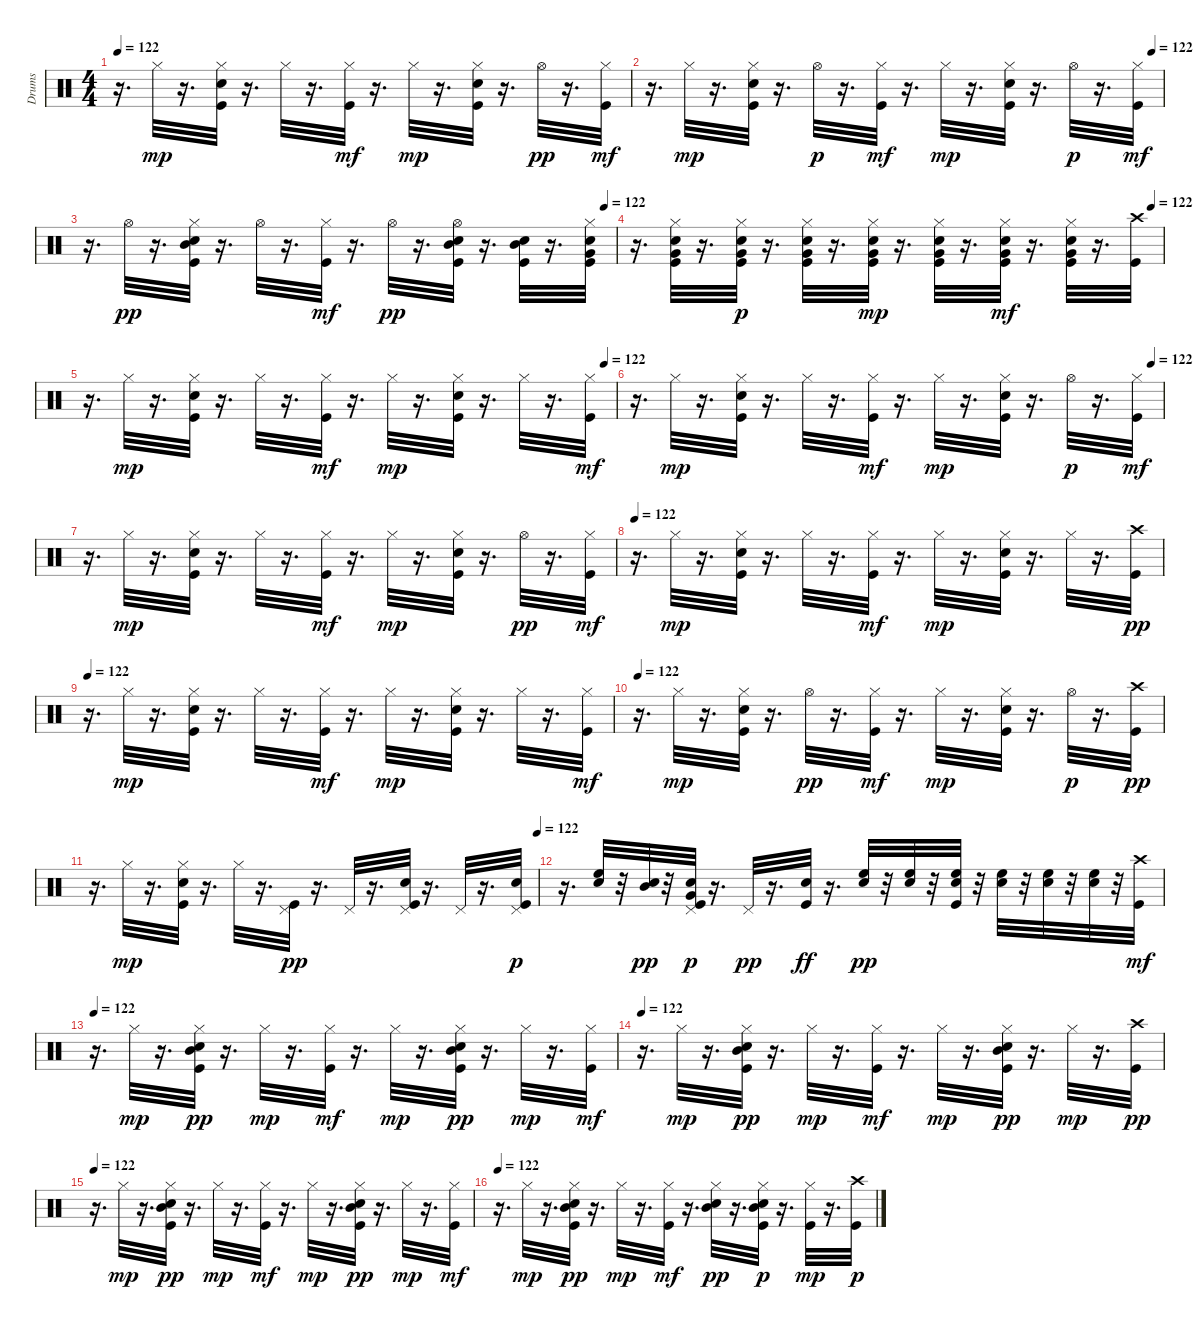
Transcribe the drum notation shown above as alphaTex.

\track ("Drums" "Drums") {instrument percussion}
\staff {score}
\articulation defaults
\ts (4 4)
\tempo 122
\clef neutral
\ks c
r.16{d dy pp} "Hi-Hat (closed)".32{dy mp} r.16{d} ("Kick (hit)" "Snare (hit) 2" "Hi-Hat (closed)").32 r.16{d} "Hi-Hat (closed)".32 r.16{d} ("Kick (hit)" "Hi-Hat (closed)").32{dy mf} r.16{d} "Hi-Hat (closed)".32{dy mp} r.16{d} ("Kick (hit)" "Snare (hit) 2" "Hi-Hat (closed)").32 r.16{d} "Hi-Hat (open)".32{dy pp} r.16{d} ("Kick (hit)" "Hi-Hat (closed)").32{dy mf} |
\tempo (122 0.9791666666666666)
r.16{d} "Hi-Hat (closed)".32{dy mp} r.16{d} ("Kick (hit)" "Snare (hit) 2" "Hi-Hat (closed)").32 r.16{d} "Hi-Hat (open)".32{dy p} r.16{d} ("Kick (hit)" "Hi-Hat (closed)").32{dy mf} r.16{d} "Hi-Hat (closed)".32{dy mp} r.16{d} ("Kick (hit)" "Snare (hit) 2" "Hi-Hat (closed)").32 r.16{d} "Hi-Hat (open)".32{dy p} r.16{d} ("Kick (hit)" "Hi-Hat (closed)").32{dy mf} |
\tempo (122 0.9791666666666666)
r.16{d} "Hi-Hat (open)".32{dy pp} r.16{d} ("Kick (hit)" "Hi-Hat (closed)" "Snare (hit) 2" "Mid Tom (hit)").32 r.16{d} "Hi-Hat (open)".32 r.16{d} ("Kick (hit)" "Hi-Hat (closed)").32{dy mf} r.16{d} "Hi-Hat (open)".32{dy pp} r.16{d} ("Kick (hit)" "Hi-Hat (open)" "Snare (hit) 2" "Mid Tom (hit)").32 r.16{d} ("Kick (hit)" "Snare (hit) 2" "Mid Tom (hit)").32 r.16{d} ("Kick (hit)" "Hi-Hat (closed)" "Snare (hit) 2" "Very Low Tom (hit)").32 |
\tempo (122 0.9791666666666666)
r.16{d} ("Kick (hit)" "Hi-Hat (closed)" "Snare (hit) 2" "Very Low Tom (hit)").32 r.16{d} ("Kick (hit)" "Hi-Hat (closed)" "Snare (hit) 2" "Very Low Tom (hit)").32{dy p} r.16{d} ("Kick (hit)" "Hi-Hat (closed)" "Snare (hit) 2" "Very Low Tom (hit)").32 r.16{d} ("Kick (hit)" "Hi-Hat (closed)" "Snare (hit) 2" "Very Low Tom (hit)").32{dy mp} r.16{d} ("Kick (hit)" "Hi-Hat (closed)" "Snare (hit) 2" "Very Low Tom (hit)").32 r.16{d} ("Kick (hit)" "Hi-Hat (closed)" "Snare (hit) 2" "Very Low Tom (hit)").32{dy mf} r.16{d} ("Kick (hit)" "Hi-Hat (closed)" "Snare (hit) 2" "Very Low Tom (hit)").32 r.16{d} ("Kick (hit)" "Crash high (hit)").32 |
\tempo (122 0.9791666666666666)
r.16{d} "Hi-Hat (closed)".32{dy mp} r.16{d} ("Kick (hit)" "Snare (hit) 2" "Hi-Hat (closed)").32 r.16{d} "Hi-Hat (closed)".32 r.16{d} ("Kick (hit)" "Hi-Hat (closed)").32{dy mf} r.16{d} "Hi-Hat (closed)".32{dy mp} r.16{d} ("Kick (hit)" "Snare (hit) 2" "Hi-Hat (closed)").32 r.16{d} "Hi-Hat (closed)".32 r.16{d} ("Kick (hit)" "Hi-Hat (closed)").32{dy mf} |
\tempo (122 0.9791666666666666)
r.16{d} "Hi-Hat (closed)".32{dy mp} r.16{d} ("Kick (hit)" "Snare (hit) 2" "Hi-Hat (closed)").32 r.16{d} "Hi-Hat (closed)".32 r.16{d} ("Kick (hit)" "Hi-Hat (closed)").32{dy mf} r.16{d} "Hi-Hat (closed)".32{dy mp} r.16{d} ("Kick (hit)" "Snare (hit) 2" "Hi-Hat (closed)").32 r.16{d} "Hi-Hat (open)".32{dy p} r.16{d} ("Kick (hit)" "Hi-Hat (closed)").32{dy mf} |
r.16{d} "Hi-Hat (closed)".32{dy mp} r.16{d} ("Kick (hit)" "Snare (hit) 2" "Hi-Hat (closed)").32 r.16{d} "Hi-Hat (closed)".32 r.16{d} ("Kick (hit)" "Hi-Hat (closed)").32{dy mf} r.16{d} "Hi-Hat (closed)".32{dy mp} r.16{d} ("Kick (hit)" "Snare (hit) 2" "Hi-Hat (closed)").32 r.16{d} "Hi-Hat (open)".32{dy pp} r.16{d} ("Kick (hit)" "Hi-Hat (closed)").32{dy mf} |
\tempo 122
r.16{d} "Hi-Hat (closed)".32{dy mp} r.16{d} ("Kick (hit)" "Snare (hit) 2" "Hi-Hat (closed)").32 r.16{d} "Hi-Hat (closed)".32 r.16{d} ("Kick (hit)" "Hi-Hat (closed)").32{dy mf} r.16{d} "Hi-Hat (closed)".32{dy mp} r.16{d} ("Kick (hit)" "Snare (hit) 2" "Hi-Hat (closed)").32 r.16{d} "Hi-Hat (closed)".32 r.16{d} ("Kick (hit)" "Crash high (hit)").32{dy pp} |
\tempo 122
r.16{d} "Hi-Hat (closed)".32{dy mp} r.16{d} ("Kick (hit)" "Snare (hit) 2" "Hi-Hat (closed)").32 r.16{d} "Hi-Hat (closed)".32 r.16{d} ("Kick (hit)" "Hi-Hat (closed)").32{dy mf} r.16{d} "Hi-Hat (closed)".32{dy mp} r.16{d} ("Kick (hit)" "Snare (hit) 2" "Hi-Hat (closed)").32 r.16{d} "Hi-Hat (closed)".32 r.16{d} ("Kick (hit)" "Hi-Hat (closed)").32{dy mf} |
\tempo 122
r.16{d} "Hi-Hat (closed)".32{dy mp} r.16{d} ("Kick (hit)" "Snare (hit) 2" "Hi-Hat (closed)").32 r.16{d} "Hi-Hat (open)".32{dy pp} r.16{d} ("Kick (hit)" "Hi-Hat (closed)").32{dy mf} r.16{d} "Hi-Hat (closed)".32{dy mp} r.16{d} ("Kick (hit)" "Snare (hit) 2" "Hi-Hat (closed)").32 r.16{d} "Hi-Hat (open)".32{dy p} r.16{d} ("Kick (hit)" "Crash high (hit)").32{dy pp} |
\tempo (122 1)
r.16{d} "Hi-Hat (closed)".32{dy mp} r.16{d} ("Kick (hit)" "Snare (hit) 2" "Hi-Hat (closed)").32 r.16{d} "Hi-Hat (closed)".32 r.16{d} ("Kick (hit)" "Pedal Hi-Hat (hit)").32{dy pp} r.16{d} "Pedal Hi-Hat (hit)".32 r.16{d} ("Kick (hit)" "Snare (hit) 2" "Pedal Hi-Hat (hit)").32 r.16{d} "Pedal Hi-Hat (hit)".32 r.16{d} ("Kick (hit)" "Snare (hit) 2" "Pedal Hi-Hat (hit)").32{dy p} |
r.16{d} ("Snare (hit) 2" "High Floor Tom (hit)").32 r.32 ("Snare (hit) 2" "Mid Tom (hit)").32{dy pp} r.32 ("Kick (hit)" "Very Low Tom (hit)" "Snare (hit) 2" "Pedal Hi-Hat (hit)").32{dy p} r.16{d} "Pedal Hi-Hat (hit)".32{dy pp} r.16{d} ("Kick (hit)" "Snare (hit) 2").32{dy ff} r.16{d} ("Snare (hit) 2" "High Floor Tom (hit)").32{dy pp} r.32 ("Snare (hit) 2" "High Floor Tom (hit)").32 r.32 ("Kick (hit)" "Snare (hit) 2" "High Floor Tom (hit)").32 r.32 ("Snare (hit) 2" "High Floor Tom (hit)").32 r.32 ("Snare (hit) 2" "High Floor Tom (hit)").32 r.32 ("Snare (hit) 2" "High Floor Tom (hit)").32 r.32 ("Kick (hit)" "Crash high (hit)").32{dy mf} |
\tempo 122
r.16{d} "Hi-Hat (closed)".32{dy mp} r.16{d} ("Kick (hit)" "Hi-Hat (closed)" "Snare (hit) 2" "Mid Tom (hit)").32{dy pp} r.16{d} "Hi-Hat (closed)".32{dy mp} r.16{d} ("Kick (hit)" "Hi-Hat (closed)").32{dy mf} r.16{d} "Hi-Hat (closed)".32{dy mp} r.16{d} ("Kick (hit)" "Hi-Hat (closed)" "Snare (hit) 2" "Mid Tom (hit)").32{dy pp} r.16{d} "Hi-Hat (closed)".32{dy mp} r.16{d} ("Kick (hit)" "Hi-Hat (closed)").32{dy mf} |
\tempo 122
r.16{d} "Hi-Hat (closed)".32{dy mp} r.16{d} ("Kick (hit)" "Hi-Hat (closed)" "Snare (hit) 2" "Mid Tom (hit)").32{dy pp} r.16{d} "Hi-Hat (closed)".32{dy mp} r.16{d} ("Kick (hit)" "Hi-Hat (closed)").32{dy mf} r.16{d} "Hi-Hat (closed)".32{dy mp} r.16{d} ("Kick (hit)" "Hi-Hat (closed)" "Snare (hit) 2" "Mid Tom (hit)").32{dy pp} r.16{d} "Hi-Hat (closed)".32{dy mp} r.16{d} ("Kick (hit)" "Crash high (hit)").32{dy pp} |
\tempo 122
r.16{d} "Hi-Hat (closed)".32{dy mp} r.16{d} ("Kick (hit)" "Hi-Hat (closed)" "Snare (hit) 2" "Mid Tom (hit)").32{dy pp} r.16{d} "Hi-Hat (closed)".32{dy mp} r.16{d} ("Kick (hit)" "Hi-Hat (closed)").32{dy mf} r.16{d} "Hi-Hat (closed)".32{dy mp} r.16{d} ("Kick (hit)" "Hi-Hat (closed)" "Snare (hit) 2" "Mid Tom (hit)").32{dy pp} r.16{d} "Hi-Hat (closed)".32{dy mp} r.16{d} ("Kick (hit)" "Hi-Hat (closed)").32{dy mf} |
\tempo 122
r.16{d} "Hi-Hat (closed)".32{dy mp} r.16{d} ("Kick (hit)" "Hi-Hat (closed)" "Snare (hit) 2" "Mid Tom (hit)").32{dy pp} r.16{d} "Hi-Hat (closed)".32{dy mp} r.16{d} ("Kick (hit)" "Hi-Hat (closed)").32{dy mf} r.16{d} ("Snare (hit) 2" "Hi-Hat (closed)" "Mid Tom (hit)").32{dy pp} r.16{d} ("Kick (hit)" "Hi-Hat (closed)" "Snare (hit) 2" "Mid Tom (hit)").32{dy p} r.16{d} ("Kick (hit)" "Hi-Hat (closed)").32{dy mp} r.16{d} ("Kick (hit)" "Crash high (hit)").32{dy p}
